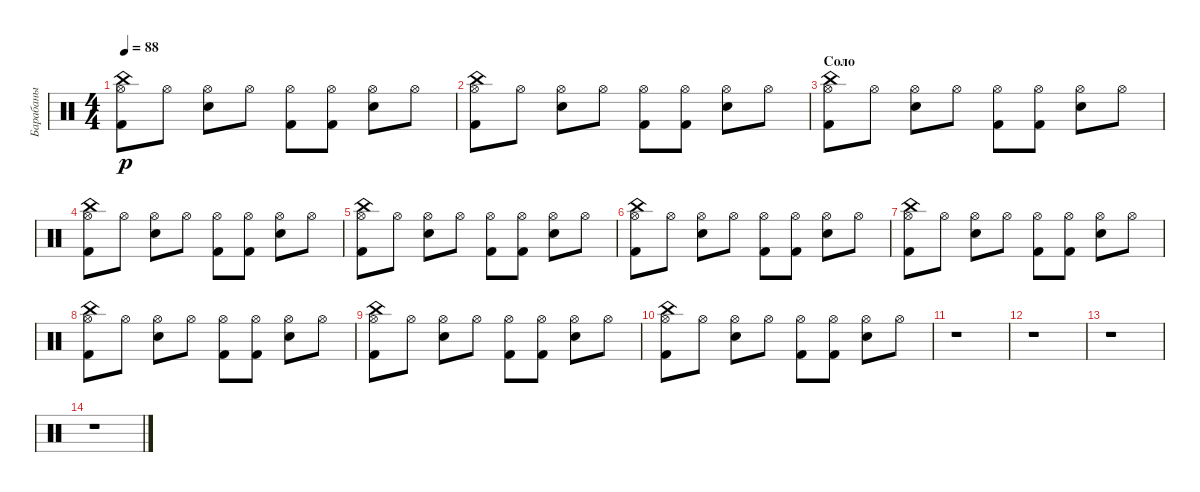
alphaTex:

\track ("Барабаны" "Барабаны") {instrument percussion}
\staff {score}
\articulation defaults
\ts (4 4)
\tempo 88
\clef neutral
\ks c
("China (hit)" "Kick (hit) 2" "Hi-Hat (open)").8{dy p} "Hi-Hat (open)".8 ("Electric Snare (hit)" "Hi-Hat (open)").8 "Hi-Hat (open)".8 ("Kick (hit) 2" "Hi-Hat (open)").8 ("Kick (hit) 2" "Hi-Hat (open)").8 ("Electric Snare (hit)" "Hi-Hat (open)").8 "Hi-Hat (open)".8 |
("China (hit)" "Kick (hit) 2" "Hi-Hat (open)").8 "Hi-Hat (open)".8 ("Electric Snare (hit)" "Hi-Hat (open)").8 "Hi-Hat (open)".8 ("Kick (hit) 2" "Hi-Hat (open)").8 ("Kick (hit) 2" "Hi-Hat (open)").8 ("Electric Snare (hit)" "Hi-Hat (open)").8 "Hi-Hat (open)".8 |
\section ("" "Соло")
("China (hit)" "Kick (hit) 2" "Hi-Hat (open)").8 "Hi-Hat (open)".8 ("Electric Snare (hit)" "Hi-Hat (open)").8 "Hi-Hat (open)".8 ("Kick (hit) 2" "Hi-Hat (open)").8 ("Kick (hit) 2" "Hi-Hat (open)").8 ("Electric Snare (hit)" "Hi-Hat (open)").8 "Hi-Hat (open)".8 |
("China (hit)" "Kick (hit) 2" "Hi-Hat (open)").8 "Hi-Hat (open)".8 ("Electric Snare (hit)" "Hi-Hat (open)").8 "Hi-Hat (open)".8 ("Kick (hit) 2" "Hi-Hat (open)").8 ("Kick (hit) 2" "Hi-Hat (open)").8 ("Electric Snare (hit)" "Hi-Hat (open)").8 "Hi-Hat (open)".8 |
("China (hit)" "Kick (hit) 2" "Hi-Hat (open)").8 "Hi-Hat (open)".8 ("Electric Snare (hit)" "Hi-Hat (open)").8 "Hi-Hat (open)".8 ("Kick (hit) 2" "Hi-Hat (open)").8 ("Kick (hit) 2" "Hi-Hat (open)").8 ("Electric Snare (hit)" "Hi-Hat (open)").8 "Hi-Hat (open)".8 |
("China (hit)" "Kick (hit) 2" "Hi-Hat (open)").8 "Hi-Hat (open)".8 ("Electric Snare (hit)" "Hi-Hat (open)").8 "Hi-Hat (open)".8 ("Kick (hit) 2" "Hi-Hat (open)").8 ("Kick (hit) 2" "Hi-Hat (open)").8 ("Electric Snare (hit)" "Hi-Hat (open)").8 "Hi-Hat (open)".8 |
("China (hit)" "Kick (hit) 2" "Hi-Hat (open)").8 "Hi-Hat (open)".8 ("Electric Snare (hit)" "Hi-Hat (open)").8 "Hi-Hat (open)".8 ("Kick (hit) 2" "Hi-Hat (open)").8 ("Kick (hit) 2" "Hi-Hat (open)").8 ("Electric Snare (hit)" "Hi-Hat (open)").8 "Hi-Hat (open)".8 |
("China (hit)" "Kick (hit) 2" "Hi-Hat (open)").8 "Hi-Hat (open)".8 ("Electric Snare (hit)" "Hi-Hat (open)").8 "Hi-Hat (open)".8 ("Kick (hit) 2" "Hi-Hat (open)").8 ("Kick (hit) 2" "Hi-Hat (open)").8 ("Electric Snare (hit)" "Hi-Hat (open)").8 "Hi-Hat (open)".8 |
("China (hit)" "Kick (hit) 2" "Hi-Hat (open)").8 "Hi-Hat (open)".8 ("Electric Snare (hit)" "Hi-Hat (open)").8 "Hi-Hat (open)".8 ("Kick (hit) 2" "Hi-Hat (open)").8 ("Kick (hit) 2" "Hi-Hat (open)").8 ("Electric Snare (hit)" "Hi-Hat (open)").8 "Hi-Hat (open)".8 |
("China (hit)" "Kick (hit) 2" "Hi-Hat (open)").8 "Hi-Hat (open)".8 ("Electric Snare (hit)" "Hi-Hat (open)").8 "Hi-Hat (open)".8 ("Kick (hit) 2" "Hi-Hat (open)").8 ("Kick (hit) 2" "Hi-Hat (open)").8 ("Electric Snare (hit)" "Hi-Hat (open)").8 "Hi-Hat (open)".8 |
r.1 |
r.1 |
r.1 |
r.1
